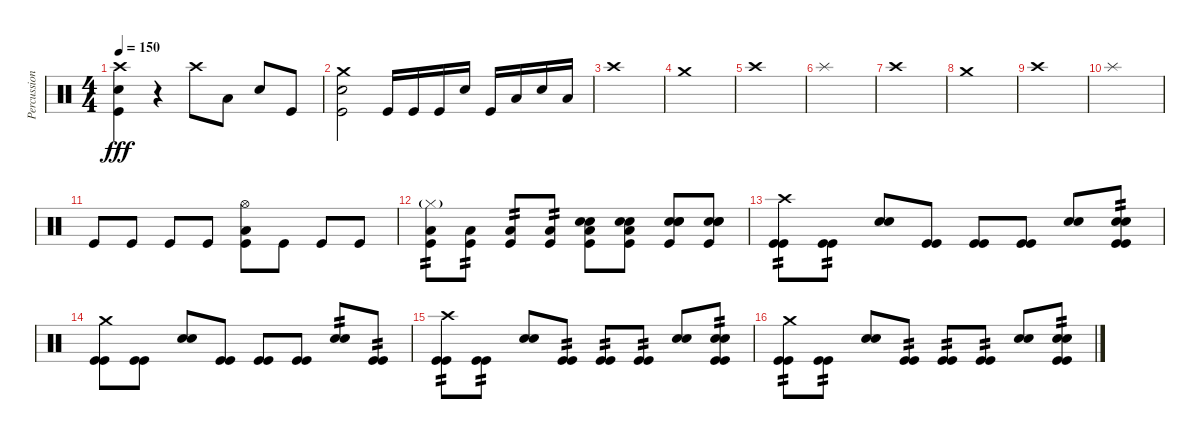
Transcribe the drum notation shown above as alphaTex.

\track ("Percussion" "Percussion") {instrument percussion}
\staff {score}
\articulation defaults
\ts (4 4)
\tempo 150
\clef neutral
\ks c
("Crash high (hit)" "Snare (hit) 2" "Kick (hit)").4{dy fff} r.4 "Crash high (hit)".8 "Low Floor Tom (hit)".8 "Snare (hit) 2".8 "Kick (hit)".8 |
("Crash medium (hit)" "Snare (hit) 2" "Kick (hit)").2 "Kick (hit)".16 "Kick (hit)".16 "Kick (hit)".16 "Snare (hit) 2".16 "Kick (hit)".16 "Low Tom (hit)".16 "Snare (hit) 2".16 "Low Tom (hit)".16 |
"Crash high (hit)".1 |
"Crash medium (hit)".1 |
"Crash high (hit)".1 |
"Splash (hit)".1 |
"Crash high (hit)".1 |
"Crash medium (hit)".1 |
"Crash high (hit)".1 |
"Splash (hit)".1 |
"Kick (hit)".8 "Kick (hit)".8 "Kick (hit)".8 "Kick (hit)".8 ("Hi-Hat (open)" "Low Floor Tom (hit)" "Kick (hit)").8 "Kick (hit)".8 "Kick (hit)".8 "Kick (hit)".8 |
("Hi-Hat (closed)"{g} "Low Floor Tom (hit)" "Kick (hit)").8{tp 2} ("Low Floor Tom (hit)" "Kick (hit)").8{tp 2} ("Low Floor Tom (hit)" "Kick (hit)").8{tp 2} ("Low Floor Tom (hit)" "Kick (hit)").8{tp 2} ("Snare (hit) 2" "Snare (hit) 2" "Low Tom (hit)" "Kick (hit)").8 ("Snare (hit) 2" "Snare (hit) 2" "Low Tom (hit)" "Kick (hit)").8 ("Snare (hit) 2" "Snare (hit) 2" "Snare (hit) 2" "Kick (hit)").8 ("Snare (hit) 2" "Snare (hit) 2" "Snare (hit) 2" "Kick (hit)").8 |
("Crash high (hit)" "Kick (hit)" "Kick (hit)").8{tp 2} ("Kick (hit)" "Kick (hit)").8{tp 2} ("Snare (hit) 2" "Snare (hit) 2").8 ("Kick (hit)" "Kick (hit)").8 ("Kick (hit)" "Kick (hit)").8 ("Kick (hit)" "Kick (hit)").8 ("Snare (hit) 2" "Snare (hit) 2").8 ("Snare (hit) 2" "Snare (hit) 2" "Kick (hit)" "Kick (hit)").8{tp 2} |
("Crash medium (hit)" "Kick (hit)" "Kick (hit)").8 ("Kick (hit)" "Kick (hit)").8 ("Snare (hit) 2" "Snare (hit) 2").8 ("Kick (hit)" "Kick (hit)").8 ("Kick (hit)" "Kick (hit)").8 ("Kick (hit)" "Kick (hit)").8 ("Snare (hit) 2" "Snare (hit) 2").8{tp 2} ("Kick (hit)" "Kick (hit)").8{tp 2} |
("Crash high (hit)" "Kick (hit)" "Kick (hit)").8{tp 2} ("Kick (hit)" "Kick (hit)").8{tp 2} ("Snare (hit) 2" "Snare (hit) 2").8 ("Kick (hit)" "Kick (hit)").8{tp 2} ("Kick (hit)" "Kick (hit)").8{tp 2} ("Kick (hit)" "Kick (hit)").8{tp 2} ("Snare (hit) 2" "Snare (hit) 2").8 ("Snare (hit) 2" "Snare (hit) 2" "Kick (hit)" "Kick (hit)").8{tp 2} |
("Crash medium (hit)" "Kick (hit)" "Kick (hit)").8{tp 2} ("Kick (hit)" "Kick (hit)").8{tp 2} ("Snare (hit) 2" "Snare (hit) 2").8 ("Kick (hit)" "Kick (hit)").8{tp 2} ("Kick (hit)" "Kick (hit)").8{tp 2} ("Kick (hit)" "Kick (hit)").8{tp 2} ("Snare (hit) 2" "Snare (hit) 2").8 ("Snare (hit) 2" "Snare (hit) 2" "Kick (hit)" "Kick (hit)").8{tp 2}
